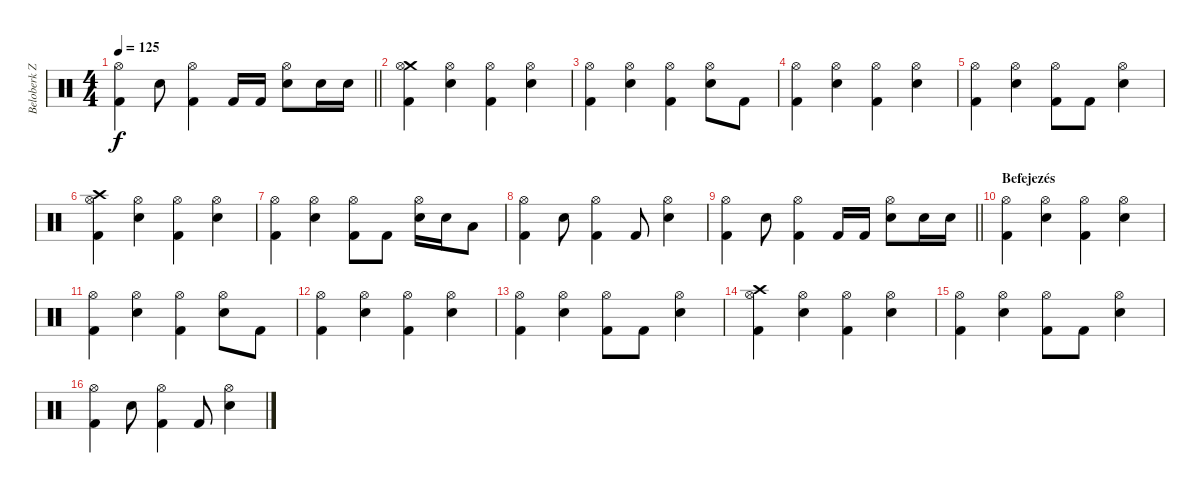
\track ("Beloberk Zsolt - Dobok" "Beloberk Z") {instrument percussion}
\staff {score}
\articulation defaults
\ts (4 4)
\tempo 125
\clef neutral
\barLineRight lightlight
\ks c
("Hi-Hat (open)" "Kick (hit) 2").4{dy f} "Electric Snare (hit)".8 ("Hi-Hat (open)" "Kick (hit) 2").4 "Kick (hit) 2".16 "Kick (hit) 2".16 ("Hi-Hat (open)" "Electric Snare (hit)").8 "Electric Snare (hit)".16 "Electric Snare (hit)".16 |
("Crash medium (hit)" "Hi-Hat (open)" "Kick (hit) 2").4 ("Hi-Hat (open)" "Electric Snare (hit)").4 ("Hi-Hat (open)" "Kick (hit) 2").4 ("Hi-Hat (open)" "Electric Snare (hit)").4 |
("Hi-Hat (open)" "Kick (hit) 2").4 ("Hi-Hat (open)" "Electric Snare (hit)").4 ("Hi-Hat (open)" "Kick (hit) 2").4 ("Hi-Hat (open)" "Electric Snare (hit)").8 "Kick (hit) 2".8 |
("Hi-Hat (open)" "Kick (hit) 2").4 ("Hi-Hat (open)" "Electric Snare (hit)").4 ("Hi-Hat (open)" "Kick (hit) 2").4 ("Hi-Hat (open)" "Electric Snare (hit)").4 |
("Hi-Hat (open)" "Kick (hit) 2").4 ("Hi-Hat (open)" "Electric Snare (hit)").4 ("Hi-Hat (open)" "Kick (hit) 2").8 "Kick (hit) 2".8 ("Hi-Hat (open)" "Electric Snare (hit)").4 |
("Crash high (hit)" "Hi-Hat (open)" "Kick (hit) 2").4 ("Hi-Hat (open)" "Electric Snare (hit)").4 ("Hi-Hat (open)" "Kick (hit) 2").4 ("Hi-Hat (open)" "Electric Snare (hit)").4 |
("Hi-Hat (open)" "Kick (hit) 2").4 ("Hi-Hat (open)" "Electric Snare (hit)").4 ("Hi-Hat (open)" "Kick (hit) 2").8 "Kick (hit) 2".8 ("Hi-Hat (open)" "Electric Snare (hit)").16 "Electric Snare (hit)".16 "Low Tom (hit)".8 |
("Hi-Hat (open)" "Kick (hit) 2").4 "Electric Snare (hit)".8 ("Hi-Hat (open)" "Kick (hit) 2").4 "Kick (hit) 2".8 ("Hi-Hat (open)" "Electric Snare (hit)").4 |
\barLineRight lightlight
("Hi-Hat (open)" "Kick (hit) 2").4 "Electric Snare (hit)".8 ("Hi-Hat (open)" "Kick (hit) 2").4 "Kick (hit) 2".16 "Kick (hit) 2".16 ("Hi-Hat (open)" "Electric Snare (hit)").8 "Electric Snare (hit)".16 "Electric Snare (hit)".16 |
\section ("" "Befejezés")
("Hi-Hat (open)" "Kick (hit) 2").4 ("Hi-Hat (open)" "Electric Snare (hit)").4 ("Hi-Hat (open)" "Kick (hit) 2").4 ("Hi-Hat (open)" "Electric Snare (hit)").4 |
("Hi-Hat (open)" "Kick (hit) 2").4 ("Hi-Hat (open)" "Electric Snare (hit)").4 ("Hi-Hat (open)" "Kick (hit) 2").4 ("Hi-Hat (open)" "Electric Snare (hit)").8 "Kick (hit) 2".8 |
("Hi-Hat (open)" "Kick (hit) 2").4 ("Hi-Hat (open)" "Electric Snare (hit)").4 ("Hi-Hat (open)" "Kick (hit) 2").4 ("Hi-Hat (open)" "Electric Snare (hit)").4 |
("Hi-Hat (open)" "Kick (hit) 2").4 ("Hi-Hat (open)" "Electric Snare (hit)").4 ("Hi-Hat (open)" "Kick (hit) 2").8 "Kick (hit) 2".8 ("Hi-Hat (open)" "Electric Snare (hit)").4 |
("Crash high (hit)" "Hi-Hat (open)" "Kick (hit) 2").4 ("Hi-Hat (open)" "Electric Snare (hit)").4 ("Hi-Hat (open)" "Kick (hit) 2").4 ("Hi-Hat (open)" "Electric Snare (hit)").4 |
("Hi-Hat (open)" "Kick (hit) 2").4 ("Hi-Hat (open)" "Electric Snare (hit)").4 ("Hi-Hat (open)" "Kick (hit) 2").8 "Kick (hit) 2".8 ("Hi-Hat (open)" "Electric Snare (hit)").4 |
("Hi-Hat (open)" "Kick (hit) 2").4 "Electric Snare (hit)".8 ("Hi-Hat (open)" "Kick (hit) 2").4 "Kick (hit) 2".8 ("Hi-Hat (open)" "Electric Snare (hit)").4
